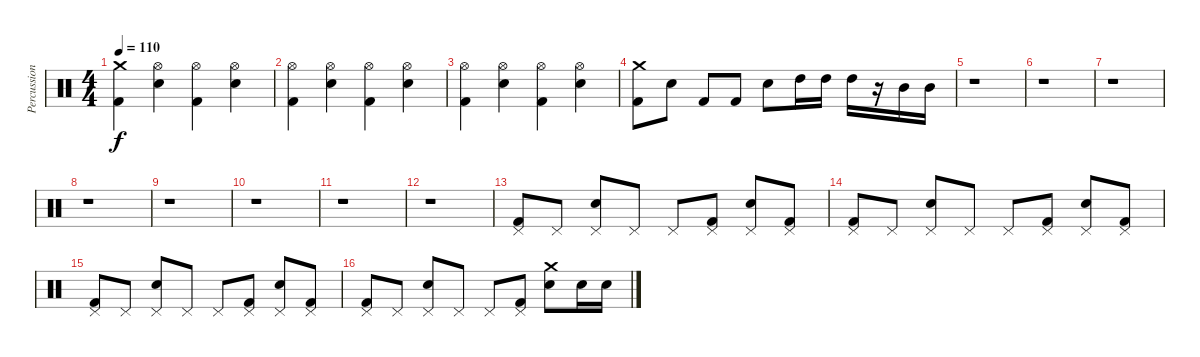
\track ("Percussion" "Percussion") {instrument percussion}
\staff {score}
\articulation defaults
\ts (4 4)
\tempo 110
\clef neutral
\ks c
("Crash medium (hit)" "Kick (hit) 2").4{dy f} ("Hi-Hat (open)" "Snare (hit) 2").4 ("Hi-Hat (open)" "Kick (hit) 2").4 ("Hi-Hat (open)" "Snare (hit) 2").4 |
("Hi-Hat (open)" "Kick (hit) 2").4 ("Hi-Hat (open)" "Snare (hit) 2").4 ("Hi-Hat (open)" "Kick (hit) 2").4 ("Hi-Hat (open)" "Snare (hit) 2").4 |
("Hi-Hat (open)" "Kick (hit) 2").4 ("Hi-Hat (open)" "Snare (hit) 2").4 ("Hi-Hat (open)" "Kick (hit) 2").4 ("Hi-Hat (open)" "Snare (hit) 2").4 |
("Crash medium (hit)" "Kick (hit) 2").8 "Snare (hit) 2".8 "Kick (hit) 2".8 "Kick (hit) 2".8 "Snare (hit) 2".8 "High Tom (hit)".16 "High Tom (hit)".16 "High Tom (hit)".16 r.16 "Mid Tom (hit)".16 "Mid Tom (hit)".16 |
r.1 |
r.1 |
r.1 |
r.1 |
r.1 |
r.1 |
r.1 |
r.1 |
("Pedal Hi-Hat (hit)" "Kick (hit) 2").8 "Pedal Hi-Hat (hit)".8 ("Pedal Hi-Hat (hit)" "Snare (hit) 2").8 "Pedal Hi-Hat (hit)".8 "Pedal Hi-Hat (hit)".8 ("Pedal Hi-Hat (hit)" "Kick (hit) 2").8 ("Pedal Hi-Hat (hit)" "Snare (hit) 2").8 ("Pedal Hi-Hat (hit)" "Kick (hit) 2").8 |
("Pedal Hi-Hat (hit)" "Kick (hit) 2").8 "Pedal Hi-Hat (hit)".8 ("Pedal Hi-Hat (hit)" "Snare (hit) 2").8 "Pedal Hi-Hat (hit)".8 "Pedal Hi-Hat (hit)".8 ("Pedal Hi-Hat (hit)" "Kick (hit) 2").8 ("Pedal Hi-Hat (hit)" "Snare (hit) 2").8 ("Pedal Hi-Hat (hit)" "Kick (hit) 2").8 |
("Pedal Hi-Hat (hit)" "Kick (hit) 2").8 "Pedal Hi-Hat (hit)".8 ("Pedal Hi-Hat (hit)" "Snare (hit) 2").8 "Pedal Hi-Hat (hit)".8 "Pedal Hi-Hat (hit)".8 ("Pedal Hi-Hat (hit)" "Kick (hit) 2").8 ("Pedal Hi-Hat (hit)" "Snare (hit) 2").8 ("Pedal Hi-Hat (hit)" "Kick (hit) 2").8 |
("Pedal Hi-Hat (hit)" "Kick (hit) 2").8 "Pedal Hi-Hat (hit)".8 ("Pedal Hi-Hat (hit)" "Snare (hit) 2").8 "Pedal Hi-Hat (hit)".8 "Pedal Hi-Hat (hit)".8 ("Pedal Hi-Hat (hit)" "Kick (hit) 2").8 ("Crash medium (hit)" "Snare (hit) 2").8 "Snare (hit) 2".16 "Snare (hit) 2".16
